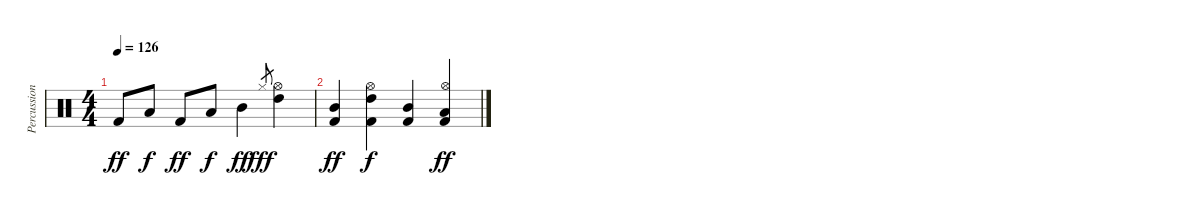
\track ("Percussion" "Percussion") {instrument percussion}
\staff {score}
\articulation defaults
\ts (4 4)
\tempo 126
\clef neutral
\ks c "Kick (hit) 2".8{dy ff} "Low Floor Tom (hit)".8{dy f} "Kick (hit) 2".8{dy ff} "Low Floor Tom (hit)".8{dy f} "Mid Tom (hit)".4{dy ff} "Hi-Hat (closed)".8{gr dy fff}
("High Tom (hit)" "Hi-Hat (open)").4 |
("Kick (hit) 2" "Mid Tom (hit)").4{dy ff} ("Kick (hit) 2" "High Tom (hit)" "Hi-Hat (open)").4{dy f} ("Kick (hit) 2" "Mid Tom (hit)").4 ("Kick (hit) 2" "Low Tom (hit)" "Hi-Hat (open)").4{dy ff}
